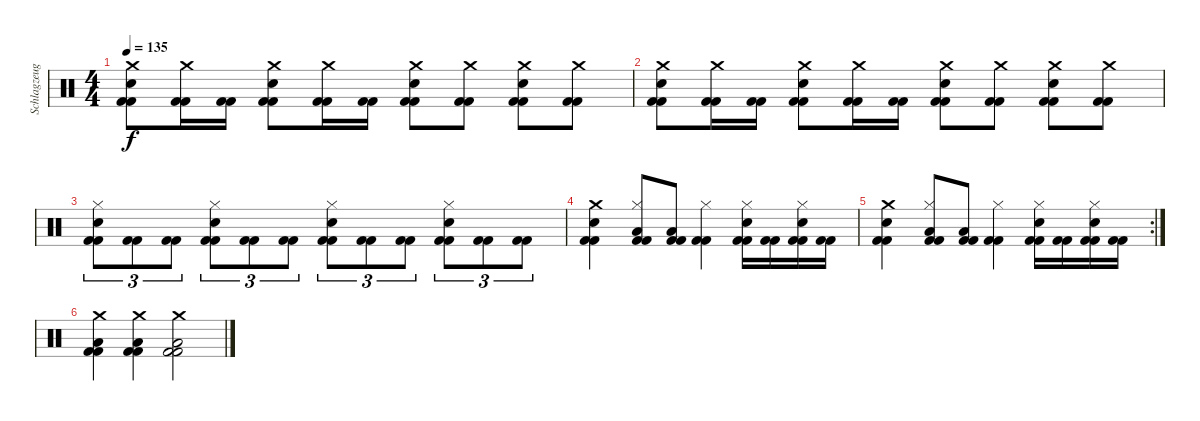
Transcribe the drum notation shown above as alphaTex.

\track ("Schlagzeug" "Schlagzeug") {instrument percussion}
\staff {score}
\articulation defaults
\ts (4 4)
\tempo 135
\clef neutral
\ks c
("Crash medium (hit)" "Snare (hit) 2" "Kick (hit) 2" "Kick (hit) 2").8{dy f} ("Crash medium (hit)" "Kick (hit) 2" "Kick (hit) 2").16 ("Kick (hit) 2" "Kick (hit) 2").16 ("Crash medium (hit)" "Snare (hit) 2" "Kick (hit) 2" "Kick (hit) 2").8 ("Crash medium (hit)" "Kick (hit) 2" "Kick (hit) 2").16 ("Kick (hit) 2" "Kick (hit) 2").16 ("Crash medium (hit)" "Snare (hit) 2" "Kick (hit) 2" "Kick (hit) 2").8 ("Crash medium (hit)" "Kick (hit) 2" "Kick (hit) 2").8 ("Crash medium (hit)" "Snare (hit) 2" "Kick (hit) 2" "Kick (hit) 2").8 ("Crash medium (hit)" "Kick (hit) 2" "Kick (hit) 2").8 |
("Crash medium (hit)" "Snare (hit) 2" "Kick (hit) 2" "Kick (hit) 2").8 ("Crash medium (hit)" "Kick (hit) 2" "Kick (hit) 2").16 ("Kick (hit) 2" "Kick (hit) 2").16 ("Crash medium (hit)" "Snare (hit) 2" "Kick (hit) 2" "Kick (hit) 2").8 ("Crash medium (hit)" "Kick (hit) 2" "Kick (hit) 2").16 ("Kick (hit) 2" "Kick (hit) 2").16 ("Crash medium (hit)" "Snare (hit) 2" "Kick (hit) 2" "Kick (hit) 2").8 ("Crash medium (hit)" "Kick (hit) 2" "Kick (hit) 2").8 ("Crash medium (hit)" "Snare (hit) 2" "Kick (hit) 2" "Kick (hit) 2").8 ("Crash medium (hit)" "Kick (hit) 2" "Kick (hit) 2").8 |
("Hi-Hat (closed)" "Snare (hit) 2" "Kick (hit) 2" "Kick (hit) 2").8{tu (3 2)} ("Kick (hit) 2" "Kick (hit) 2").8{tu (3 2)} ("Kick (hit) 2" "Kick (hit) 2").8{tu (3 2)} ("Hi-Hat (closed)" "Snare (hit) 2" "Kick (hit) 2" "Kick (hit) 2").8{tu (3 2)} ("Kick (hit) 2" "Kick (hit) 2").8{tu (3 2)} ("Kick (hit) 2" "Kick (hit) 2").8{tu (3 2)} ("Hi-Hat (closed)" "Snare (hit) 2" "Kick (hit) 2" "Kick (hit) 2").8{tu (3 2)} ("Kick (hit) 2" "Kick (hit) 2").8{tu (3 2)} ("Kick (hit) 2" "Kick (hit) 2").8{tu (3 2)} ("Hi-Hat (closed)" "Snare (hit) 2" "Kick (hit) 2" "Kick (hit) 2").8{tu (3 2)} ("Kick (hit) 2" "Kick (hit) 2").8{tu (3 2)} ("Kick (hit) 2" "Kick (hit) 2").8{tu (3 2)} |
("Crash medium (hit)" "Snare (hit) 2" "Kick (hit) 2" "Kick (hit) 2").4 ("Hi-Hat (closed)" "Low Floor Tom (hit)" "Kick (hit) 2" "Kick (hit) 2").8 ("Low Floor Tom (hit)" "Kick (hit) 2" "Kick (hit) 2").8 ("Hi-Hat (closed)" "Kick (hit) 2" "Kick (hit) 2").4 ("Hi-Hat (closed)" "Snare (hit) 2" "Kick (hit) 2" "Kick (hit) 2").16 ("Kick (hit) 2" "Kick (hit) 2").16 ("Hi-Hat (closed)" "Snare (hit) 2" "Kick (hit) 2" "Kick (hit) 2").16 ("Kick (hit) 2" "Kick (hit) 2").16 |
\rc 2
("Crash medium (hit)" "Snare (hit) 2" "Kick (hit) 2" "Kick (hit) 2").4 ("Hi-Hat (closed)" "Low Floor Tom (hit)" "Kick (hit) 2" "Kick (hit) 2").8 ("Low Floor Tom (hit)" "Kick (hit) 2" "Kick (hit) 2").8 ("Hi-Hat (closed)" "Kick (hit) 2" "Kick (hit) 2").4 ("Hi-Hat (closed)" "Snare (hit) 2" "Kick (hit) 2" "Kick (hit) 2").16 ("Kick (hit) 2" "Kick (hit) 2").16 ("Hi-Hat (closed)" "Snare (hit) 2" "Kick (hit) 2" "Kick (hit) 2").16 ("Kick (hit) 2" "Kick (hit) 2").16 |
("Crash medium (hit)" "Low Floor Tom (hit)" "Kick (hit) 2" "Kick (hit) 2").4 ("Crash medium (hit)" "Low Floor Tom (hit)" "Kick (hit) 2" "Kick (hit) 2").4 ("Crash medium (hit)" "Low Floor Tom (hit)" "Kick (hit) 2" "Kick (hit) 2").2
